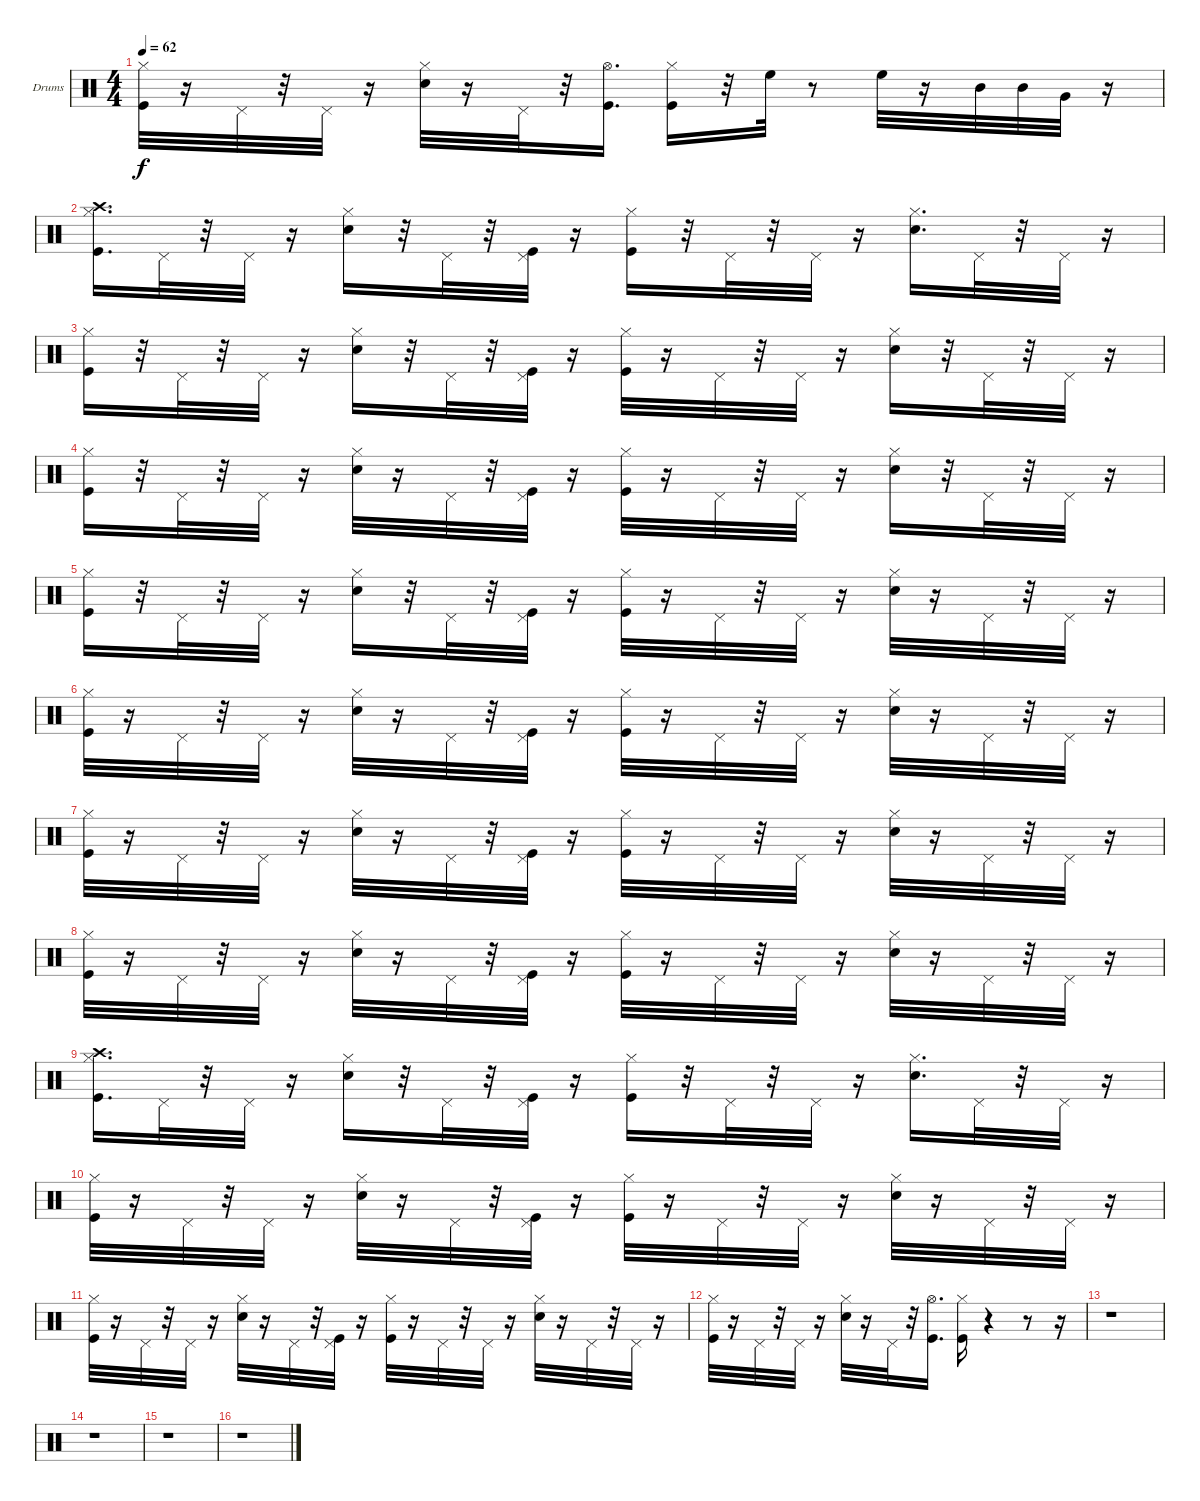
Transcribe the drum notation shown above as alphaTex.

\bracketExtendMode groupsimilarinstruments
\firstSystemTrackNameOrientation horizontal
\otherSystemsTrackNameOrientation horizontal
\track ("Ударные" "Drums") {instrument percussion}
\staff {score}
\articulation defaults
\ts (4 4)
\tempo 62
\clef neutral
\ks c
("Kick (hit)" "Hi-Hat (closed)").32{dy f} r.16 "Pedal Hi-Hat (hit)".32 r.32 "Pedal Hi-Hat (hit)".32 r.16 ("Snare (hit) 2" "Hi-Hat (closed)").32 r.16 "Pedal Hi-Hat (hit)".32 r.32 ("Kick (hit)" "Hi-Hat (open)").16{d} ("Kick (hit)" "Hi-Hat (closed)").16 r.32 "High Floor Tom (hit)".32 r.8 "High Floor Tom (hit)".32 r.16 "Mid Tom (hit)".32 "Mid Tom (hit)".32 "Very Low Tom (hit)".32 r.16 |
("Kick (hit)" "Hi-Hat (closed)" "Crash high (hit)").16{d} "Pedal Hi-Hat (hit)".32 r.32 "Pedal Hi-Hat (hit)".32 r.16 ("Snare (hit) 2" "Hi-Hat (closed)").16 r.32 "Pedal Hi-Hat (hit)".32 r.32 ("Kick (hit)" "Pedal Hi-Hat (hit)").32 r.16 ("Kick (hit)" "Hi-Hat (closed)").16 r.32 "Pedal Hi-Hat (hit)".32 r.32 "Pedal Hi-Hat (hit)".32 r.16 ("Snare (hit) 2" "Hi-Hat (closed)").16{d} "Pedal Hi-Hat (hit)".32 r.32 "Pedal Hi-Hat (hit)".32 r.16 |
("Kick (hit)" "Hi-Hat (closed)").16 r.32 "Pedal Hi-Hat (hit)".32 r.32 "Pedal Hi-Hat (hit)".32 r.16 ("Snare (hit) 2" "Hi-Hat (closed)").16 r.32 "Pedal Hi-Hat (hit)".32 r.32 ("Kick (hit)" "Pedal Hi-Hat (hit)").32 r.16 ("Kick (hit)" "Hi-Hat (closed)").32 r.16 "Pedal Hi-Hat (hit)".32 r.32 "Pedal Hi-Hat (hit)".32 r.16 ("Snare (hit) 2" "Hi-Hat (closed)").16 r.32 "Pedal Hi-Hat (hit)".32 r.32 "Pedal Hi-Hat (hit)".32 r.16 |
("Kick (hit)" "Hi-Hat (closed)").16 r.32 "Pedal Hi-Hat (hit)".32 r.32 "Pedal Hi-Hat (hit)".32 r.16 ("Snare (hit) 2" "Hi-Hat (closed)").32 r.16 "Pedal Hi-Hat (hit)".32 r.32 ("Kick (hit)" "Pedal Hi-Hat (hit)").32 r.16 ("Kick (hit)" "Hi-Hat (closed)").32 r.16 "Pedal Hi-Hat (hit)".32 r.32 "Pedal Hi-Hat (hit)".32 r.16 ("Snare (hit) 2" "Hi-Hat (closed)").16 r.32 "Pedal Hi-Hat (hit)".32 r.32 "Pedal Hi-Hat (hit)".32 r.16 |
("Kick (hit)" "Hi-Hat (closed)").16 r.32 "Pedal Hi-Hat (hit)".32 r.32 "Pedal Hi-Hat (hit)".32 r.16 ("Snare (hit) 2" "Hi-Hat (closed)").16 r.32 "Pedal Hi-Hat (hit)".32 r.32 ("Kick (hit)" "Pedal Hi-Hat (hit)").32 r.16 ("Kick (hit)" "Hi-Hat (closed)").32 r.16 "Pedal Hi-Hat (hit)".32 r.32 "Pedal Hi-Hat (hit)".32 r.16 ("Snare (hit) 2" "Hi-Hat (closed)").32 r.16 "Pedal Hi-Hat (hit)".32 r.32 "Pedal Hi-Hat (hit)".32 r.16 |
("Kick (hit)" "Hi-Hat (closed)").32 r.16 "Pedal Hi-Hat (hit)".32 r.32 "Pedal Hi-Hat (hit)".32 r.16 ("Snare (hit) 2" "Hi-Hat (closed)").32 r.16 "Pedal Hi-Hat (hit)".32 r.32 ("Kick (hit)" "Pedal Hi-Hat (hit)").32 r.16 ("Kick (hit)" "Hi-Hat (closed)").32 r.16 "Pedal Hi-Hat (hit)".32 r.32 "Pedal Hi-Hat (hit)".32 r.16 ("Snare (hit) 2" "Hi-Hat (closed)").32 r.16 "Pedal Hi-Hat (hit)".32 r.32 "Pedal Hi-Hat (hit)".32 r.16 |
("Kick (hit)" "Hi-Hat (closed)").32 r.16 "Pedal Hi-Hat (hit)".32 r.32 "Pedal Hi-Hat (hit)".32 r.16 ("Snare (hit) 2" "Hi-Hat (closed)").32 r.16 "Pedal Hi-Hat (hit)".32 r.32 ("Kick (hit)" "Pedal Hi-Hat (hit)").32 r.16 ("Kick (hit)" "Hi-Hat (closed)").32 r.16 "Pedal Hi-Hat (hit)".32 r.32 "Pedal Hi-Hat (hit)".32 r.16 ("Snare (hit) 2" "Hi-Hat (closed)").32 r.16 "Pedal Hi-Hat (hit)".32 r.32 "Pedal Hi-Hat (hit)".32 r.16 |
("Kick (hit)" "Hi-Hat (closed)").32 r.16 "Pedal Hi-Hat (hit)".32 r.32 "Pedal Hi-Hat (hit)".32 r.16 ("Snare (hit) 2" "Hi-Hat (closed)").32 r.16 "Pedal Hi-Hat (hit)".32 r.32 ("Kick (hit)" "Pedal Hi-Hat (hit)").32 r.16 ("Kick (hit)" "Hi-Hat (closed)").32 r.16 "Pedal Hi-Hat (hit)".32 r.32 "Pedal Hi-Hat (hit)".32 r.16 ("Snare (hit) 2" "Hi-Hat (closed)").32 r.16 "Pedal Hi-Hat (hit)".32 r.32 "Pedal Hi-Hat (hit)".32 r.16 |
("Kick (hit)" "Hi-Hat (closed)" "Crash high (hit)").16{d} "Pedal Hi-Hat (hit)".32 r.32 "Pedal Hi-Hat (hit)".32 r.16 ("Snare (hit) 2" "Hi-Hat (closed)").16 r.32 "Pedal Hi-Hat (hit)".32 r.32 ("Kick (hit)" "Pedal Hi-Hat (hit)").32 r.16 ("Kick (hit)" "Hi-Hat (closed)").16 r.32 "Pedal Hi-Hat (hit)".32 r.32 "Pedal Hi-Hat (hit)".32 r.16 ("Snare (hit) 2" "Hi-Hat (closed)").16{d} "Pedal Hi-Hat (hit)".32 r.32 "Pedal Hi-Hat (hit)".32 r.16 |
("Kick (hit)" "Hi-Hat (closed)").32 r.16 "Pedal Hi-Hat (hit)".32 r.32 "Pedal Hi-Hat (hit)".32 r.16 ("Snare (hit) 2" "Hi-Hat (closed)").32 r.16 "Pedal Hi-Hat (hit)".32 r.32 ("Kick (hit)" "Pedal Hi-Hat (hit)").32 r.16 ("Kick (hit)" "Hi-Hat (closed)").32 r.16 "Pedal Hi-Hat (hit)".32 r.32 "Pedal Hi-Hat (hit)".32 r.16 ("Snare (hit) 2" "Hi-Hat (closed)").32 r.16 "Pedal Hi-Hat (hit)".32 r.32 "Pedal Hi-Hat (hit)".32 r.16 |
("Kick (hit)" "Hi-Hat (closed)").32 r.16 "Pedal Hi-Hat (hit)".32 r.32 "Pedal Hi-Hat (hit)".32 r.16 ("Snare (hit) 2" "Hi-Hat (closed)").32 r.16 "Pedal Hi-Hat (hit)".32 r.32 ("Kick (hit)" "Pedal Hi-Hat (hit)").32 r.16 ("Kick (hit)" "Hi-Hat (closed)").32 r.16 "Pedal Hi-Hat (hit)".32 r.32 "Pedal Hi-Hat (hit)".32 r.16 ("Snare (hit) 2" "Hi-Hat (closed)").32 r.16 "Pedal Hi-Hat (hit)".32 r.32 "Pedal Hi-Hat (hit)".32 r.16 |
("Kick (hit)" "Hi-Hat (closed)").32 r.16 "Pedal Hi-Hat (hit)".32 r.32 "Pedal Hi-Hat (hit)".32 r.16 ("Snare (hit) 2" "Hi-Hat (closed)").32 r.16 "Pedal Hi-Hat (hit)".32 r.32 ("Kick (hit)" "Hi-Hat (open)").16{d} ("Kick (hit)" "Hi-Hat (closed)").16 r.4 r.8 r.16 |
r.1 |
r.1 |
r.1 |
r.1
